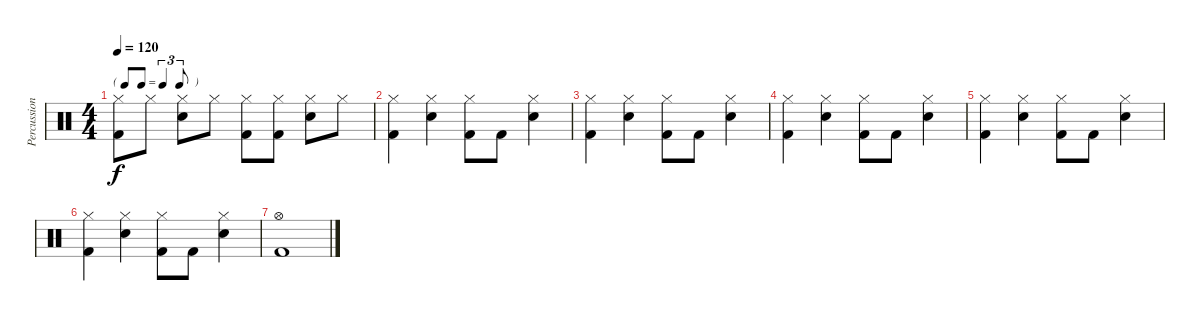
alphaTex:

\track ("Percussion" "Percussion") {instrument percussion}
\staff {score}
\articulation defaults
\ts (4 4)
\tf triplet8th
\tempo 120
\clef neutral
\ks c
("Hi-Hat (closed)" "Kick (hit) 2").8{dy f} "Hi-Hat (closed)".8 ("Hi-Hat (closed)" "Snare (hit) 2").8 "Hi-Hat (closed)".8 ("Hi-Hat (closed)" "Kick (hit) 2").8 ("Hi-Hat (closed)" "Kick (hit) 2").8 ("Hi-Hat (closed)" "Snare (hit) 2").8 "Hi-Hat (closed)".8 |
("Hi-Hat (closed)" "Kick (hit) 2").4 ("Hi-Hat (closed)" "Snare (hit) 2").4 ("Hi-Hat (closed)" "Kick (hit) 2").8 "Kick (hit) 2".8 ("Hi-Hat (closed)" "Snare (hit) 2").4 |
("Hi-Hat (closed)" "Kick (hit) 2").4 ("Hi-Hat (closed)" "Snare (hit) 2").4 ("Hi-Hat (closed)" "Kick (hit) 2").8 "Kick (hit) 2".8 ("Hi-Hat (closed)" "Snare (hit) 2").4 |
("Hi-Hat (closed)" "Kick (hit) 2").4 ("Hi-Hat (closed)" "Snare (hit) 2").4 ("Hi-Hat (closed)" "Kick (hit) 2").8 "Kick (hit) 2".8 ("Hi-Hat (closed)" "Snare (hit) 2").4 |
("Hi-Hat (closed)" "Kick (hit) 2").4 ("Hi-Hat (closed)" "Snare (hit) 2").4 ("Hi-Hat (closed)" "Kick (hit) 2").8 "Kick (hit) 2".8 ("Hi-Hat (closed)" "Snare (hit) 2").4 |
("Hi-Hat (closed)" "Kick (hit) 2").4 ("Hi-Hat (closed)" "Snare (hit) 2").4 ("Hi-Hat (closed)" "Kick (hit) 2").8 "Kick (hit) 2".8 ("Hi-Hat (closed)" "Snare (hit) 2").4 |
("Hi-Hat (open)" "Kick (hit) 2").1
